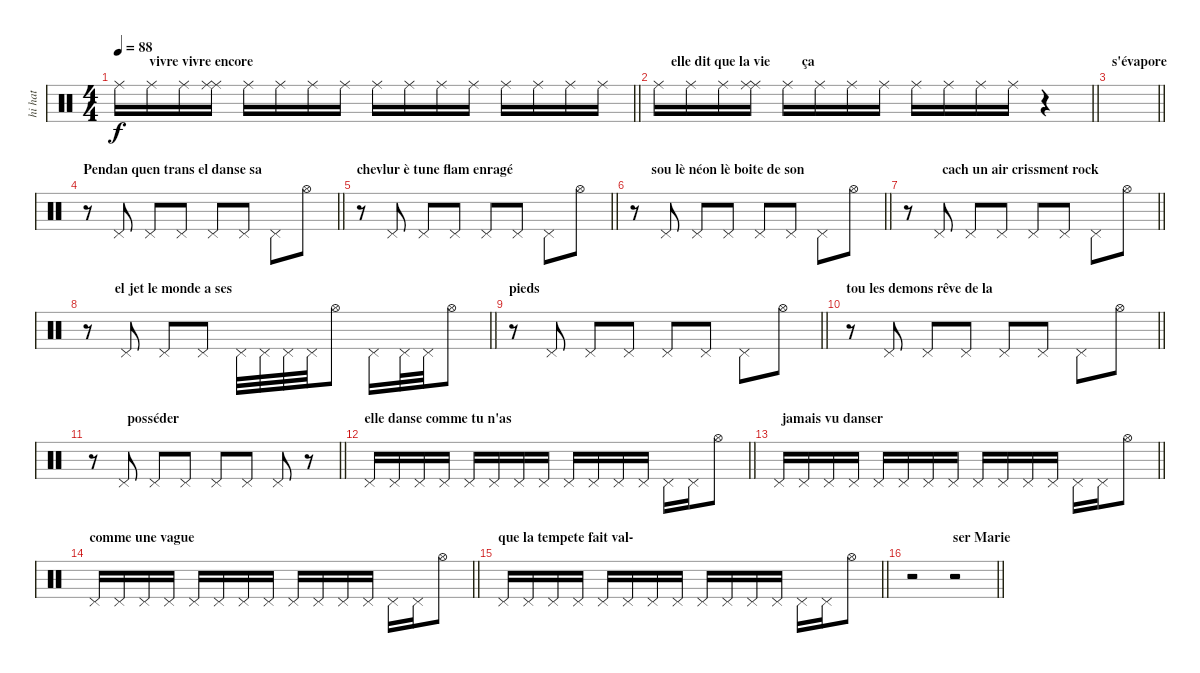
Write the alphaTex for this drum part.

\track ("hi hat" "hi hat") {instrument percussion}
\staff {score}
\articulation defaults
\ts (4 4)
\section ("" "          vivre vivre encore")
\tempo 88
\clef neutral
\barLineRight lightlight
\ks c "Ride (middle)".16{dy f} "Ride (middle)".16 "Ride (middle)".16
("Ride (middle)" "Ride (middle)").16 "Ride (middle)".16 "Ride (middle)".16 "Ride (middle)".16 "Ride (middle)".16 "Ride (middle)".16 "Ride (middle)".16 "Ride (middle)".16 "Ride (middle)".16 "Ride (middle)".16 "Ride (middle)".16 "Ride (middle)".16 "Ride (middle)".16 |
\section ("" "     elle dit que la vie         ça")
\barLineRight lightlight "Ride (middle)".16 "Ride (middle)".16 "Ride (middle)".16
("Ride (middle)" "Ride (middle)").16 "Ride (middle)".16 "Ride (middle)".16 "Ride (middle)".16 "Ride (middle)".16 "Ride (middle)".16 "Ride (middle)".16 "Ride (middle)".16 "Ride (middle)".16 r.4 |
\section ("" "s'évapore")
\barLineRight lightlight
|
\section ("" "Pendan quen trans el danse sa ")
\barLineRight lightlight
r.8 "Pedal Hi-Hat (hit)".8 "Pedal Hi-Hat (hit)".8 "Pedal Hi-Hat (hit)".8 "Pedal Hi-Hat (hit)".8 "Pedal Hi-Hat (hit)".8 "Pedal Hi-Hat (hit)".8 "Hi-Hat (open)".8 |
\section ("" "chevlur è tune flam enragé")
\barLineRight lightlight
r.8 "Pedal Hi-Hat (hit)".8 "Pedal Hi-Hat (hit)".8 "Pedal Hi-Hat (hit)".8 "Pedal Hi-Hat (hit)".8 "Pedal Hi-Hat (hit)".8 "Pedal Hi-Hat (hit)".8 "Hi-Hat (open)".8 |
\section ("" "      sou lè néon lè boite de son")
\barLineRight lightlight
r.8 "Pedal Hi-Hat (hit)".8 "Pedal Hi-Hat (hit)".8 "Pedal Hi-Hat (hit)".8 "Pedal Hi-Hat (hit)".8 "Pedal Hi-Hat (hit)".8 "Pedal Hi-Hat (hit)".8 "Hi-Hat (open)".8 |
\section ("" "           cach un air crissment rock")
\barLineRight lightlight
r.8 "Pedal Hi-Hat (hit)".8 "Pedal Hi-Hat (hit)".8 "Pedal Hi-Hat (hit)".8 "Pedal Hi-Hat (hit)".8 "Pedal Hi-Hat (hit)".8 "Pedal Hi-Hat (hit)".8 "Hi-Hat (open)".8 |
\section ("" "         el jet le monde a ses")
\barLineRight lightlight
r.8 "Pedal Hi-Hat (hit)".8 "Pedal Hi-Hat (hit)".8 "Pedal Hi-Hat (hit)".8 "Pedal Hi-Hat (hit)".32 "Pedal Hi-Hat (hit)".32 "Pedal Hi-Hat (hit)".32 "Pedal Hi-Hat (hit)".32 "Hi-Hat (open)".8 "Pedal Hi-Hat (hit)".16 "Pedal Hi-Hat (hit)".32 "Pedal Hi-Hat (hit)".32 "Hi-Hat (open)".8 |
\section ("" "pieds")
\barLineRight lightlight
r.8 "Pedal Hi-Hat (hit)".8 "Pedal Hi-Hat (hit)".8 "Pedal Hi-Hat (hit)".8 "Pedal Hi-Hat (hit)".8 "Pedal Hi-Hat (hit)".8 "Pedal Hi-Hat (hit)".8 "Hi-Hat (open)".8 |
\section ("" "tou les demons rêve de la ")
\barLineRight lightlight
r.8 "Pedal Hi-Hat (hit)".8 "Pedal Hi-Hat (hit)".8 "Pedal Hi-Hat (hit)".8 "Pedal Hi-Hat (hit)".8 "Pedal Hi-Hat (hit)".8 "Pedal Hi-Hat (hit)".8 "Hi-Hat (open)".8 |
\section ("" "           posséder")
\barLineRight lightlight
r.8 "Pedal Hi-Hat (hit)".8 "Pedal Hi-Hat (hit)".8 "Pedal Hi-Hat (hit)".8 "Pedal Hi-Hat (hit)".8 "Pedal Hi-Hat (hit)".8 "Pedal Hi-Hat (hit)".8 r.8 |
\section ("" "elle danse comme tu n'as")
\barLineRight lightlight "Pedal Hi-Hat (hit)".16 "Pedal Hi-Hat (hit)".16 "Pedal Hi-Hat (hit)".16 "Pedal Hi-Hat (hit)".16 "Pedal Hi-Hat (hit)".16 "Pedal Hi-Hat (hit)".16 "Pedal Hi-Hat (hit)".16 "Pedal Hi-Hat (hit)".16 "Pedal Hi-Hat (hit)".16 "Pedal Hi-Hat (hit)".16 "Pedal Hi-Hat (hit)".16 "Pedal Hi-Hat (hit)".16 "Pedal Hi-Hat (hit)".16 "Pedal Hi-Hat (hit)".16 "Hi-Hat (open)".8
|
\section ("" "  jamais vu danser")
\barLineRight lightlight "Pedal Hi-Hat (hit)".16 "Pedal Hi-Hat (hit)".16 "Pedal Hi-Hat (hit)".16 "Pedal Hi-Hat (hit)".16 "Pedal Hi-Hat (hit)".16 "Pedal Hi-Hat (hit)".16 "Pedal Hi-Hat (hit)".16 "Pedal Hi-Hat (hit)".16 "Pedal Hi-Hat (hit)".16 "Pedal Hi-Hat (hit)".16 "Pedal Hi-Hat (hit)".16 "Pedal Hi-Hat (hit)".16 "Pedal Hi-Hat (hit)".16 "Pedal Hi-Hat (hit)".16 "Hi-Hat (open)".8
|
\section ("" "comme une vague")
\barLineRight lightlight "Pedal Hi-Hat (hit)".16 "Pedal Hi-Hat (hit)".16 "Pedal Hi-Hat (hit)".16 "Pedal Hi-Hat (hit)".16 "Pedal Hi-Hat (hit)".16 "Pedal Hi-Hat (hit)".16 "Pedal Hi-Hat (hit)".16 "Pedal Hi-Hat (hit)".16 "Pedal Hi-Hat (hit)".16 "Pedal Hi-Hat (hit)".16 "Pedal Hi-Hat (hit)".16 "Pedal Hi-Hat (hit)".16 "Pedal Hi-Hat (hit)".16 "Pedal Hi-Hat (hit)".16 "Hi-Hat (open)".8
|
\section ("" "que la tempete fait val-")
\barLineRight lightlight "Pedal Hi-Hat (hit)".16 "Pedal Hi-Hat (hit)".16 "Pedal Hi-Hat (hit)".16 "Pedal Hi-Hat (hit)".16 "Pedal Hi-Hat (hit)".16 "Pedal Hi-Hat (hit)".16 "Pedal Hi-Hat (hit)".16 "Pedal Hi-Hat (hit)".16 "Pedal Hi-Hat (hit)".16 "Pedal Hi-Hat (hit)".16 "Pedal Hi-Hat (hit)".16 "Pedal Hi-Hat (hit)".16 "Pedal Hi-Hat (hit)".16 "Pedal Hi-Hat (hit)".16 "Hi-Hat (open)".8
|
\section ("" "             ser Marie")
\barLineRight lightlight
r.2 r.2
